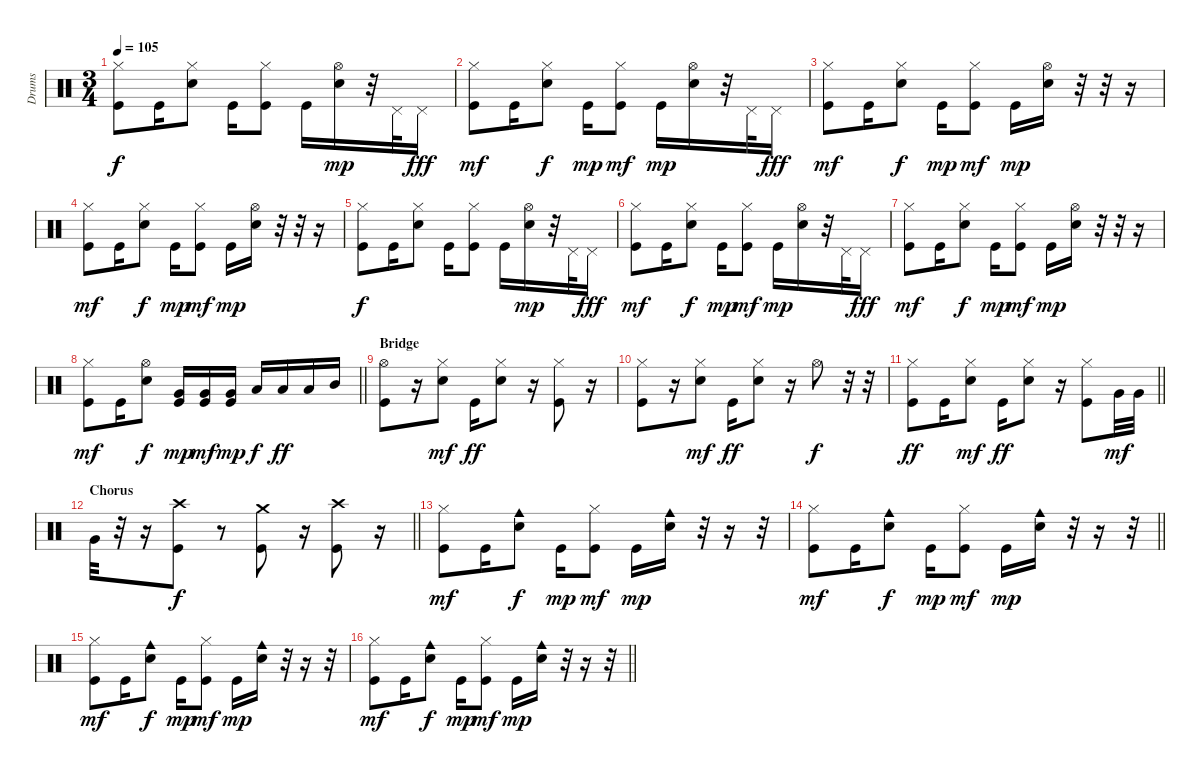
\track ("Drums" "Drums") {instrument percussion}
\staff {score}
\articulation defaults
\ts (3 4)
\tempo 105
\clef neutral
\ks c
("Hi-Hat (closed)" "Kick (hit)").8{dy f} "Kick (hit)".16 ("Hi-Hat (closed)" "Snare (hit) 2").8 "Kick (hit)".16 ("Hi-Hat (closed)" "Kick (hit)").8 "Kick (hit)".16 ("Hi-Hat (open)" "Snare (hit) 2").16{dy mp} r.32 "Pedal Hi-Hat (hit)".32 "Pedal Hi-Hat (hit)".16{dy fff} |
("Hi-Hat (closed)" "Kick (hit)").8{dy mf} "Kick (hit)".16 ("Hi-Hat (closed)" "Snare (hit) 2").8{dy f} "Kick (hit)".16{dy mp} ("Hi-Hat (closed)" "Kick (hit)").8{dy mf} "Kick (hit)".16{dy mp} ("Hi-Hat (open)" "Snare (hit) 2").16 r.32 "Pedal Hi-Hat (hit)".32 "Pedal Hi-Hat (hit)".16{dy fff} |
("Hi-Hat (closed)" "Kick (hit)").8{dy mf} "Kick (hit)".16 ("Hi-Hat (closed)" "Snare (hit) 2").8{dy f} "Kick (hit)".16{dy mp} ("Hi-Hat (closed)" "Kick (hit)").8{dy mf} "Kick (hit)".16{dy mp} ("Hi-Hat (open)" "Snare (hit) 2").16 r.32 r.32 r.16 |
("Hi-Hat (closed)" "Kick (hit)").8{dy mf} "Kick (hit)".16 ("Hi-Hat (closed)" "Snare (hit) 2").8{dy f} "Kick (hit)".16{dy mp} ("Hi-Hat (closed)" "Kick (hit)").8{dy mf} "Kick (hit)".16{dy mp} ("Hi-Hat (open)" "Snare (hit) 2").16 r.32 r.32 r.16 |
("Hi-Hat (closed)" "Kick (hit)").8{dy f} "Kick (hit)".16 ("Hi-Hat (closed)" "Snare (hit) 2").8 "Kick (hit)".16 ("Hi-Hat (closed)" "Kick (hit)").8 "Kick (hit)".16 ("Hi-Hat (open)" "Snare (hit) 2").16{dy mp} r.32 "Pedal Hi-Hat (hit)".32 "Pedal Hi-Hat (hit)".16{dy fff} |
("Hi-Hat (closed)" "Kick (hit)").8{dy mf} "Kick (hit)".16 ("Hi-Hat (closed)" "Snare (hit) 2").8{dy f} "Kick (hit)".16{dy mp} ("Hi-Hat (closed)" "Kick (hit)").8{dy mf} "Kick (hit)".16{dy mp} ("Hi-Hat (open)" "Snare (hit) 2").16 r.32 "Pedal Hi-Hat (hit)".32 "Pedal Hi-Hat (hit)".16{dy fff} |
("Hi-Hat (closed)" "Kick (hit)").8{dy mf} "Kick (hit)".16 ("Hi-Hat (closed)" "Snare (hit) 2").8{dy f} "Kick (hit)".16{dy mp} ("Hi-Hat (closed)" "Kick (hit)").8{dy mf} "Kick (hit)".16{dy mp} ("Hi-Hat (open)" "Snare (hit) 2").16 r.32 r.32 r.16 |
\barLineRight lightlight
("Hi-Hat (closed)" "Kick (hit)").8{dy mf} "Kick (hit)".16 ("Hi-Hat (open)" "Snare (hit) 2").8{dy f} ("Very Low Tom (hit)" "Kick (hit)").16{dy mp} ("Very Low Tom (hit)" "Kick (hit)").16{dy mf} ("Very Low Tom (hit)" "Kick (hit)").16{dy mp} "Low Tom (hit)".16{dy f} "Low Tom (hit)".16{dy ff} "Low Tom (hit)".16 "Mid Tom (hit)".16 |
\section ("" "Bridge")
("Hi-Hat (open)" "Kick (hit)").8 r.16 ("Hi-Hat (closed)" "Snare (hit) 2").8{dy mf} "Kick (hit)".16{dy ff} ("Hi-Hat (closed)" "Snare (hit) 2").8 r.16 ("Hi-Hat (closed)" "Kick (hit)").8 r.16 |
("Hi-Hat (closed)" "Kick (hit)").8 r.16 ("Hi-Hat (closed)" "Snare (hit) 2").8{dy mf} "Kick (hit)".16{dy ff} ("Hi-Hat (closed)" "Snare (hit) 2").8 r.16 "Hi-Hat (open)".8{dy f} r.32 r.32 |
\barLineRight lightlight
("Hi-Hat (closed)" "Kick (hit)").8{dy ff} "Kick (hit)".16 ("Hi-Hat (closed)" "Snare (hit) 2").8{dy mf} "Kick (hit)".16{dy ff} ("Hi-Hat (closed)" "Snare (hit) 2").8 r.16 ("Hi-Hat (closed)" "Kick (hit)").8 "Very Low Tom (hit)".32{dy mf} "Very Low Tom (hit)".32 |
\section ("" "Chorus")
\barLineRight lightlight "Very Low Tom (hit)".32
r.32 r.16 ("Crash high (hit)" "Kick (hit)").8{dy f} r.8 ("Crash medium (hit)" "Kick (hit)").8 r.16 ("Crash high (hit)" "Kick (hit)").8 r.16 |
("Hi-Hat (closed)" "Kick (hit)").8{dy mf} "Kick (hit)".16 ("Cowbell medium (hit)" "Snare (hit) 2").8{dy f} "Kick (hit)".16{dy mp} ("Hi-Hat (closed)" "Kick (hit)").8{dy mf} "Kick (hit)".16{dy mp} ("Cowbell medium (hit)" "Snare (hit) 2").16 r.32 r.16 r.32 |
\barLineRight lightlight
("Hi-Hat (closed)" "Kick (hit)").8{dy mf} "Kick (hit)".16 ("Cowbell medium (hit)" "Snare (hit) 2").8{dy f} "Kick (hit)".16{dy mp} ("Hi-Hat (closed)" "Kick (hit)").8{dy mf} "Kick (hit)".16{dy mp} ("Cowbell medium (hit)" "Snare (hit) 2").16 r.32 r.16 r.32 |
("Hi-Hat (closed)" "Kick (hit)").8{dy mf} "Kick (hit)".16 ("Cowbell medium (hit)" "Snare (hit) 2").8{dy f} "Kick (hit)".16{dy mp} ("Hi-Hat (closed)" "Kick (hit)").8{dy mf} "Kick (hit)".16{dy mp} ("Cowbell medium (hit)" "Snare (hit) 2").16 r.32 r.16 r.32 |
\barLineRight lightlight
("Hi-Hat (closed)" "Kick (hit)").8{dy mf} "Kick (hit)".16 ("Cowbell medium (hit)" "Snare (hit) 2").8{dy f} "Kick (hit)".16{dy mp} ("Hi-Hat (closed)" "Kick (hit)").8{dy mf} "Kick (hit)".16{dy mp} ("Cowbell medium (hit)" "Snare (hit) 2").16 r.32 r.16 r.32
